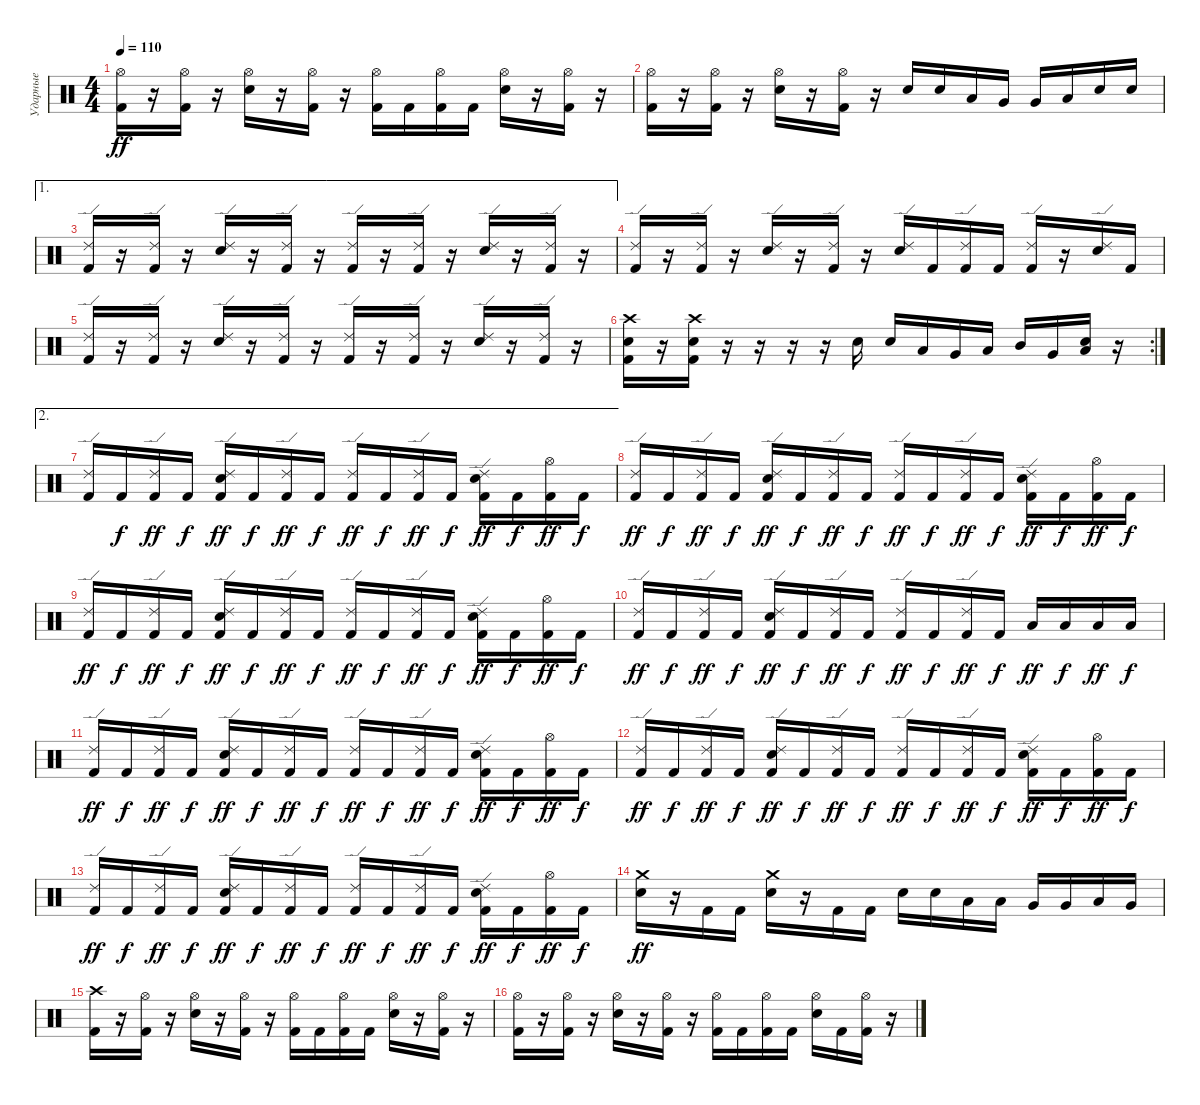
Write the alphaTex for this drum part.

\track ("Ударные" "Ударные") {instrument percussion}
\staff {score}
\articulation defaults
\ts (4 4)
\tempo 110
\clef neutral
\ks c
("Hi-Hat (open)" "Kick (hit) 2").16{dy ff} r.16 ("Hi-Hat (open)" "Kick (hit) 2").16 r.16 ("Hi-Hat (open)" "Snare (hit) 2").16 r.16 ("Hi-Hat (open)" "Kick (hit) 2").16 r.16 ("Hi-Hat (open)" "Kick (hit) 2").16 "Kick (hit) 2".16 ("Hi-Hat (open)" "Kick (hit) 2").16 "Kick (hit) 2".16 ("Hi-Hat (open)" "Snare (hit) 2").16 r.16 ("Hi-Hat (open)" "Kick (hit) 2").16 r.16 |
("Hi-Hat (open)" "Kick (hit) 2").16 r.16 ("Hi-Hat (open)" "Kick (hit) 2").16 r.16 ("Hi-Hat (open)" "Snare (hit) 2").16 r.16 ("Hi-Hat (open)" "Kick (hit) 2").16 r.16 "Snare (hit) 2".16 "Snare (hit) 2".16 "Low Floor Tom (hit)".16 "Very Low Tom (hit)".16 "Very Low Tom (hit)".16 "Low Floor Tom (hit)".16 "Snare (hit) 2".16 "Snare (hit) 2".16 |
\ae 1
("Ride (edge) 2" "Kick (hit) 2").16 r.16 ("Ride (edge) 2" "Kick (hit) 2").16 r.16 ("Ride (edge) 2" "Snare (hit) 2").16 r.16 ("Ride (edge) 2" "Kick (hit) 2").16 r.16 ("Ride (edge) 2" "Kick (hit) 2").16 r.16 ("Ride (edge) 2" "Kick (hit) 2").16 r.16 ("Ride (edge) 2" "Snare (hit) 2").16 r.16 ("Ride (edge) 2" "Kick (hit) 2").16 r.16 |
("Ride (edge) 2" "Kick (hit) 2").16 r.16 ("Ride (edge) 2" "Kick (hit) 2").16 r.16 ("Ride (edge) 2" "Snare (hit) 2").16 r.16 ("Ride (edge) 2" "Kick (hit) 2").16 r.16 ("Ride (edge) 2" "Snare (hit) 2").16 "Kick (hit) 2".16 ("Ride (edge) 2" "Kick (hit) 2").16 "Kick (hit) 2".16 ("Ride (edge) 2" "Kick (hit) 2").16 r.16 ("Ride (edge) 2" "Snare (hit) 2").16 "Kick (hit) 2".16 |
("Ride (edge) 2" "Kick (hit) 2").16 r.16 ("Ride (edge) 2" "Kick (hit) 2").16 r.16 ("Ride (edge) 2" "Snare (hit) 2").16 r.16 ("Ride (edge) 2" "Kick (hit) 2").16 r.16 ("Ride (edge) 2" "Kick (hit) 2").16 r.16 ("Ride (edge) 2" "Kick (hit) 2").16 r.16 ("Ride (edge) 2" "Snare (hit) 2").16 r.16 ("Ride (edge) 2" "Kick (hit) 2").16 r.16 |
\rc 2
("Crash high (hit)" "Snare (hit) 2" "Kick (hit) 2").16 r.16 ("Crash high (hit)" "Snare (hit) 2" "Kick (hit) 2").16 r.16 r.16 r.16 r.16 "Snare (hit) 2".16 "Snare (hit) 2".16 "Low Floor Tom (hit)".16 "Very Low Tom (hit)".16 "Low Tom (hit)".16 "Mid Tom (hit)".16 "Very Low Tom (hit)".16 ("Snare (hit) 2" "Low Floor Tom (hit)").16 r.16 |
\ae 2
("Ride (edge) 2" "Kick (hit) 2").16 "Kick (hit) 2".16{dy f} ("Ride (edge) 2" "Kick (hit) 2").16{dy ff} "Kick (hit) 2".16{dy f} ("Ride (edge) 2" "Snare (hit) 2" "Kick (hit) 2").16{dy ff} "Kick (hit) 2".16{dy f} ("Ride (edge) 2" "Kick (hit) 2").16{dy ff} "Kick (hit) 2".16{dy f} ("Ride (edge) 2" "Kick (hit) 2").16{dy ff} "Kick (hit) 2".16{dy f} ("Ride (edge) 2" "Kick (hit) 2").16{dy ff} "Kick (hit) 2".16{dy f} ("Ride (edge) 2" "Snare (hit) 2" "Kick (hit) 2").16{dy ff} "Kick (hit) 2".16{dy f} ("Hi-Hat (open)" "Kick (hit) 2").16{dy ff} "Kick (hit) 2".16{dy f} |
("Ride (edge) 2" "Kick (hit) 2").16{dy ff} "Kick (hit) 2".16{dy f} ("Ride (edge) 2" "Kick (hit) 2").16{dy ff} "Kick (hit) 2".16{dy f} ("Ride (edge) 2" "Snare (hit) 2" "Kick (hit) 2").16{dy ff} "Kick (hit) 2".16{dy f} ("Ride (edge) 2" "Kick (hit) 2").16{dy ff} "Kick (hit) 2".16{dy f} ("Ride (edge) 2" "Kick (hit) 2").16{dy ff} "Kick (hit) 2".16{dy f} ("Ride (edge) 2" "Kick (hit) 2").16{dy ff} "Kick (hit) 2".16{dy f} ("Ride (edge) 2" "Snare (hit) 2" "Kick (hit) 2").16{dy ff} "Kick (hit) 2".16{dy f} ("Hi-Hat (open)" "Kick (hit) 2").16{dy ff} "Kick (hit) 2".16{dy f} |
("Ride (edge) 2" "Kick (hit) 2").16{dy ff} "Kick (hit) 2".16{dy f} ("Ride (edge) 2" "Kick (hit) 2").16{dy ff} "Kick (hit) 2".16{dy f} ("Ride (edge) 2" "Snare (hit) 2" "Kick (hit) 2").16{dy ff} "Kick (hit) 2".16{dy f} ("Ride (edge) 2" "Kick (hit) 2").16{dy ff} "Kick (hit) 2".16{dy f} ("Ride (edge) 2" "Kick (hit) 2").16{dy ff} "Kick (hit) 2".16{dy f} ("Ride (edge) 2" "Kick (hit) 2").16{dy ff} "Kick (hit) 2".16{dy f} ("Ride (edge) 2" "Snare (hit) 2" "Kick (hit) 2").16{dy ff} "Kick (hit) 2".16{dy f} ("Hi-Hat (open)" "Kick (hit) 2").16{dy ff} "Kick (hit) 2".16{dy f} |
("Ride (edge) 2" "Kick (hit) 2").16{dy ff} "Kick (hit) 2".16{dy f} ("Ride (edge) 2" "Kick (hit) 2").16{dy ff} "Kick (hit) 2".16{dy f} ("Ride (edge) 2" "Snare (hit) 2" "Kick (hit) 2").16{dy ff} "Kick (hit) 2".16{dy f} ("Ride (edge) 2" "Kick (hit) 2").16{dy ff} "Kick (hit) 2".16{dy f} ("Ride (edge) 2" "Kick (hit) 2").16{dy ff} "Kick (hit) 2".16{dy f} ("Ride (edge) 2" "Kick (hit) 2").16{dy ff} "Kick (hit) 2".16{dy f} "Low Floor Tom (hit)".16{dy ff} "Low Floor Tom (hit)".16{dy f} "Low Floor Tom (hit)".16{dy ff} "Low Floor Tom (hit)".16{dy f} |
("Ride (edge) 2" "Kick (hit) 2").16{dy ff} "Kick (hit) 2".16{dy f} ("Ride (edge) 2" "Kick (hit) 2").16{dy ff} "Kick (hit) 2".16{dy f} ("Ride (edge) 2" "Snare (hit) 2" "Kick (hit) 2").16{dy ff} "Kick (hit) 2".16{dy f} ("Ride (edge) 2" "Kick (hit) 2").16{dy ff} "Kick (hit) 2".16{dy f} ("Ride (edge) 2" "Kick (hit) 2").16{dy ff} "Kick (hit) 2".16{dy f} ("Ride (edge) 2" "Kick (hit) 2").16{dy ff} "Kick (hit) 2".16{dy f} ("Ride (edge) 2" "Snare (hit) 2" "Kick (hit) 2").16{dy ff} "Kick (hit) 2".16{dy f} ("Hi-Hat (open)" "Kick (hit) 2").16{dy ff} "Kick (hit) 2".16{dy f} |
("Ride (edge) 2" "Kick (hit) 2").16{dy ff} "Kick (hit) 2".16{dy f} ("Ride (edge) 2" "Kick (hit) 2").16{dy ff} "Kick (hit) 2".16{dy f} ("Ride (edge) 2" "Snare (hit) 2" "Kick (hit) 2").16{dy ff} "Kick (hit) 2".16{dy f} ("Ride (edge) 2" "Kick (hit) 2").16{dy ff} "Kick (hit) 2".16{dy f} ("Ride (edge) 2" "Kick (hit) 2").16{dy ff} "Kick (hit) 2".16{dy f} ("Ride (edge) 2" "Kick (hit) 2").16{dy ff} "Kick (hit) 2".16{dy f} ("Ride (edge) 2" "Snare (hit) 2" "Kick (hit) 2").16{dy ff} "Kick (hit) 2".16{dy f} ("Hi-Hat (open)" "Kick (hit) 2").16{dy ff} "Kick (hit) 2".16{dy f} |
("Ride (edge) 2" "Kick (hit) 2").16{dy ff} "Kick (hit) 2".16{dy f} ("Ride (edge) 2" "Kick (hit) 2").16{dy ff} "Kick (hit) 2".16{dy f} ("Ride (edge) 2" "Snare (hit) 2" "Kick (hit) 2").16{dy ff} "Kick (hit) 2".16{dy f} ("Ride (edge) 2" "Kick (hit) 2").16{dy ff} "Kick (hit) 2".16{dy f} ("Ride (edge) 2" "Kick (hit) 2").16{dy ff} "Kick (hit) 2".16{dy f} ("Ride (edge) 2" "Kick (hit) 2").16{dy ff} "Kick (hit) 2".16{dy f} ("Ride (edge) 2" "Snare (hit) 2" "Kick (hit) 2").16{dy ff} "Kick (hit) 2".16{dy f} ("Hi-Hat (open)" "Kick (hit) 2").16{dy ff} "Kick (hit) 2".16{dy f} |
("Crash medium (hit)" "Snare (hit) 2").16{dy ff} r.16 "Kick (hit) 2".16 "Kick (hit) 2".16 ("Crash medium (hit)" "Snare (hit) 2").16 r.16 "Kick (hit) 2".16 "Kick (hit) 2".16 "Snare (hit) 2".16 "Snare (hit) 2".16 "Low Floor Tom (hit)".16 "Low Floor Tom (hit)".16 "Very Low Tom (hit)".16 "Very Low Tom (hit)".16 "Low Floor Tom (hit)".16 "Very Low Tom (hit)".16 |
("Crash high (hit)" "Kick (hit) 2").16 r.16 ("Hi-Hat (open)" "Kick (hit) 2").16 r.16 ("Hi-Hat (open)" "Snare (hit) 2").16 r.16 ("Hi-Hat (open)" "Kick (hit) 2").16 r.16 ("Hi-Hat (open)" "Kick (hit) 2").16 "Kick (hit) 2".16 ("Hi-Hat (open)" "Kick (hit) 2").16 "Kick (hit) 2".16 ("Hi-Hat (open)" "Snare (hit) 2").16 r.16 ("Hi-Hat (open)" "Kick (hit) 2").16 r.16 |
("Hi-Hat (open)" "Kick (hit) 2").16 r.16 ("Hi-Hat (open)" "Kick (hit) 2").16 r.16 ("Hi-Hat (open)" "Snare (hit) 2").16 r.16 ("Hi-Hat (open)" "Kick (hit) 2").16 r.16 ("Hi-Hat (open)" "Kick (hit) 2").16 "Kick (hit) 2".16 ("Hi-Hat (open)" "Kick (hit) 2").16 "Kick (hit) 2".16 ("Hi-Hat (open)" "Snare (hit) 2").16 "Kick (hit) 2".16 ("Hi-Hat (open)" "Kick (hit) 2").16 r.16
